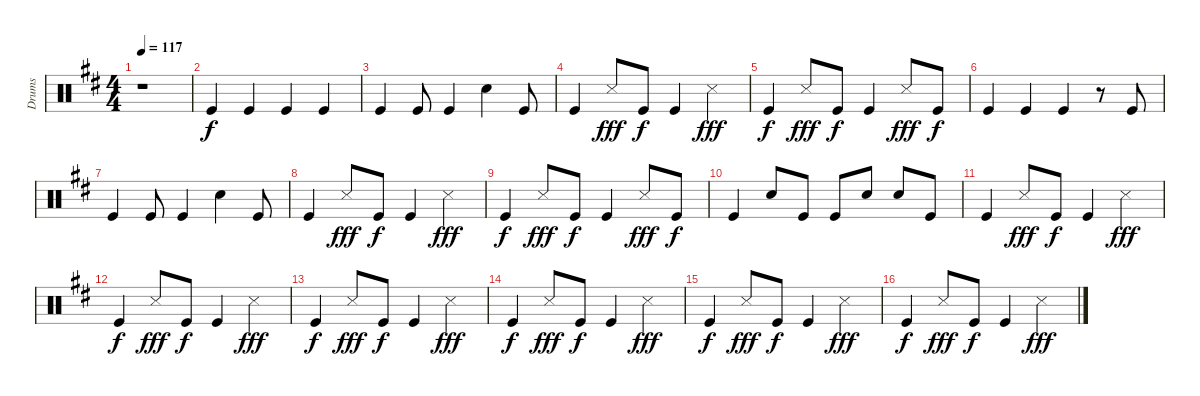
\track ("Drums" "Drums") {instrument percussion}
\staff {score}
\articulation defaults
\ts (4 4)
\tempo 117
\clef neutral
\ks d
r.1{dy f} |
"Kick (hit)".4 "Kick (hit)".4 "Kick (hit)".4 "Kick (hit)".4 |
"Kick (hit)".4 "Kick (hit)".8 "Kick (hit)".4 "Snare (hit) 2".4 "Kick (hit)".8 |
"Kick (hit)".4 "Snare (side stick) 3".8{dy fff} "Kick (hit)".8{dy f} "Kick (hit)".4 "Snare (side stick) 3".4{dy fff} |
"Kick (hit)".4{dy f} "Snare (side stick) 3".8{dy fff} "Kick (hit)".8{dy f} "Kick (hit)".4 "Snare (side stick) 3".8{dy fff} "Kick (hit)".8{dy f} |
"Kick (hit)".4 "Kick (hit)".4 "Kick (hit)".4 r.8 "Kick (hit)".8 |
"Kick (hit)".4 "Kick (hit)".8 "Kick (hit)".4 "Snare (hit) 2".4 "Kick (hit)".8 |
"Kick (hit)".4 "Snare (side stick) 3".8{dy fff} "Kick (hit)".8{dy f} "Kick (hit)".4 "Snare (side stick) 3".4{dy fff} |
"Kick (hit)".4{dy f} "Snare (side stick) 3".8{dy fff} "Kick (hit)".8{dy f} "Kick (hit)".4 "Snare (side stick) 3".8{dy fff} "Kick (hit)".8{dy f} |
"Kick (hit)".4 "Snare (hit) 2".8 "Kick (hit)".8 "Kick (hit)".8 "Snare (hit) 2".8 "Snare (hit) 2".8 "Kick (hit)".8 |
"Kick (hit)".4 "Snare (side stick) 3".8{dy fff} "Kick (hit)".8{dy f} "Kick (hit)".4 "Snare (side stick) 3".4{dy fff} |
"Kick (hit)".4{dy f} "Snare (side stick) 3".8{dy fff} "Kick (hit)".8{dy f} "Kick (hit)".4 "Snare (side stick) 3".4{dy fff} |
"Kick (hit)".4{dy f} "Snare (side stick) 3".8{dy fff} "Kick (hit)".8{dy f} "Kick (hit)".4 "Snare (side stick) 3".4{dy fff} |
"Kick (hit)".4{dy f} "Snare (side stick) 3".8{dy fff} "Kick (hit)".8{dy f} "Kick (hit)".4 "Snare (side stick) 3".4{dy fff} |
"Kick (hit)".4{dy f} "Snare (side stick) 3".8{dy fff} "Kick (hit)".8{dy f} "Kick (hit)".4 "Snare (side stick) 3".4{dy fff} |
"Kick (hit)".4{dy f} "Snare (side stick) 3".8{dy fff} "Kick (hit)".8{dy f} "Kick (hit)".4 "Snare (side stick) 3".4{dy fff}
